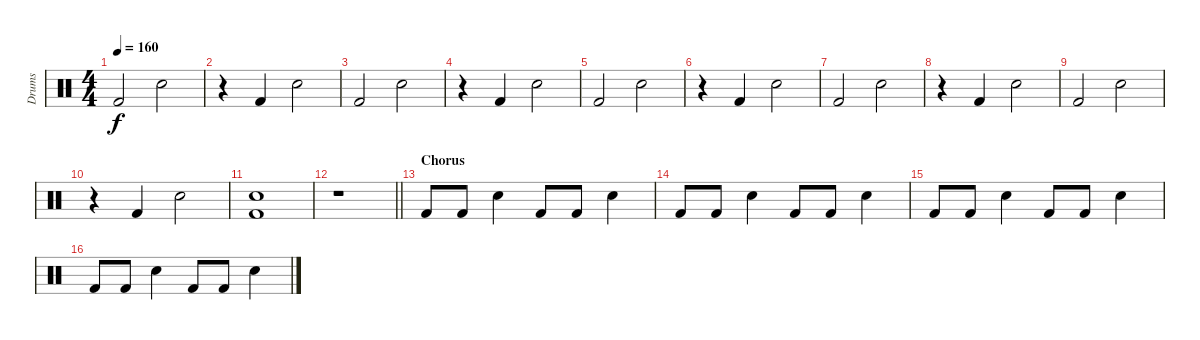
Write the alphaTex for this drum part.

\track ("Drums" "Drums") {instrument percussion}
\staff {score}
\articulation defaults
\ts (4 4)
\tempo 160
\clef neutral
\ks c "Kick (hit) 2".2{dy f} "Electric Snare (hit)".2
|
r.4 "Kick (hit) 2".4 "Electric Snare (hit)".2 |
"Kick (hit) 2".2 "Electric Snare (hit)".2 |
r.4 "Kick (hit) 2".4 "Electric Snare (hit)".2 |
"Kick (hit) 2".2 "Electric Snare (hit)".2 |
r.4 "Kick (hit) 2".4 "Electric Snare (hit)".2 |
"Kick (hit) 2".2 "Electric Snare (hit)".2 |
r.4 "Kick (hit) 2".4 "Electric Snare (hit)".2 |
"Kick (hit) 2".2 "Electric Snare (hit)".2 |
r.4 "Kick (hit) 2".4 "Electric Snare (hit)".2 |
("Kick (hit) 2" "Electric Snare (hit)").1 |
\barLineRight lightlight
r.1 |
\section ("" "Chorus")
"Kick (hit) 2".8 "Kick (hit) 2".8 "Electric Snare (hit)".4 "Kick (hit) 2".8 "Kick (hit) 2".8 "Electric Snare (hit)".4 |
"Kick (hit) 2".8 "Kick (hit) 2".8 "Electric Snare (hit)".4 "Kick (hit) 2".8 "Kick (hit) 2".8 "Electric Snare (hit)".4 |
"Kick (hit) 2".8 "Kick (hit) 2".8 "Electric Snare (hit)".4 "Kick (hit) 2".8 "Kick (hit) 2".8 "Electric Snare (hit)".4 |
"Kick (hit) 2".8 "Kick (hit) 2".8 "Electric Snare (hit)".4 "Kick (hit) 2".8 "Kick (hit) 2".8 "Electric Snare (hit)".4
